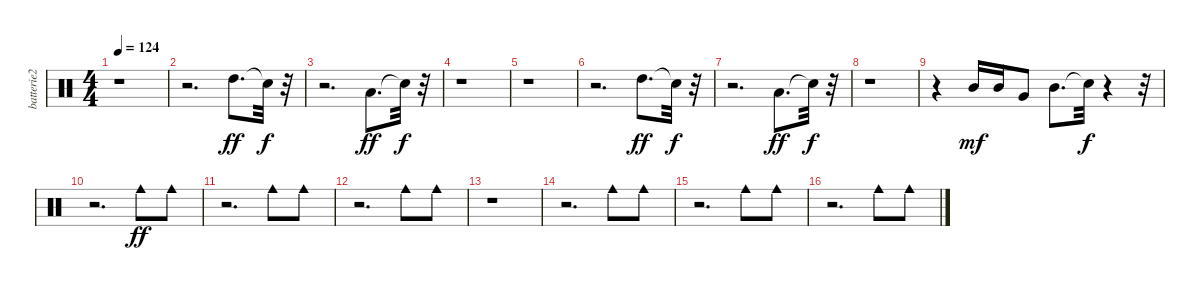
\track ("batterie2" "batterie2") {instrument percussion}
\staff {score}
\articulation defaults
\ts (4 4)
\tempo 124
\clef neutral
\ks c
r.1{dy ff} |
r.2{d} "High Tom (hit)".8{d} "Snare (hit)"{t}.32{dy f} r.32 |
r.2{d} "Low Floor Tom (hit)".8{d dy ff} "Snare (hit)"{t}.32{dy f} r.32 |
r.1 |
r.1 |
r.2{d} "High Tom (hit)".8{d dy ff} "Snare (hit)"{t}.32{dy f} r.32 |
r.2{d} "Low Floor Tom (hit)".8{d dy ff} "Snare (hit)"{t}.32{dy f} r.32 |
r.1 |
r.4 "Mid Tom (hit)".16{dy mf} "Mid Tom (hit)".16 "Very Low Tom (hit)".8 "Mid Tom (hit)".8{d} "Snare (hit)"{t}.32{dy f} r.4 r.32 |
r.2{d} "Cowbell medium (hit)".8{dy ff} "Cowbell medium (hit)".8 |
r.2{d} "Cowbell medium (hit)".8 "Cowbell medium (hit)".8 |
r.2{d} "Cowbell medium (hit)".8 "Cowbell medium (hit)".8 |
r.1 |
r.2{d} "Cowbell medium (hit)".8 "Cowbell medium (hit)".8 |
r.2{d} "Cowbell medium (hit)".8 "Cowbell medium (hit)".8 |
r.2{d} "Cowbell medium (hit)".8 "Cowbell medium (hit)".8
